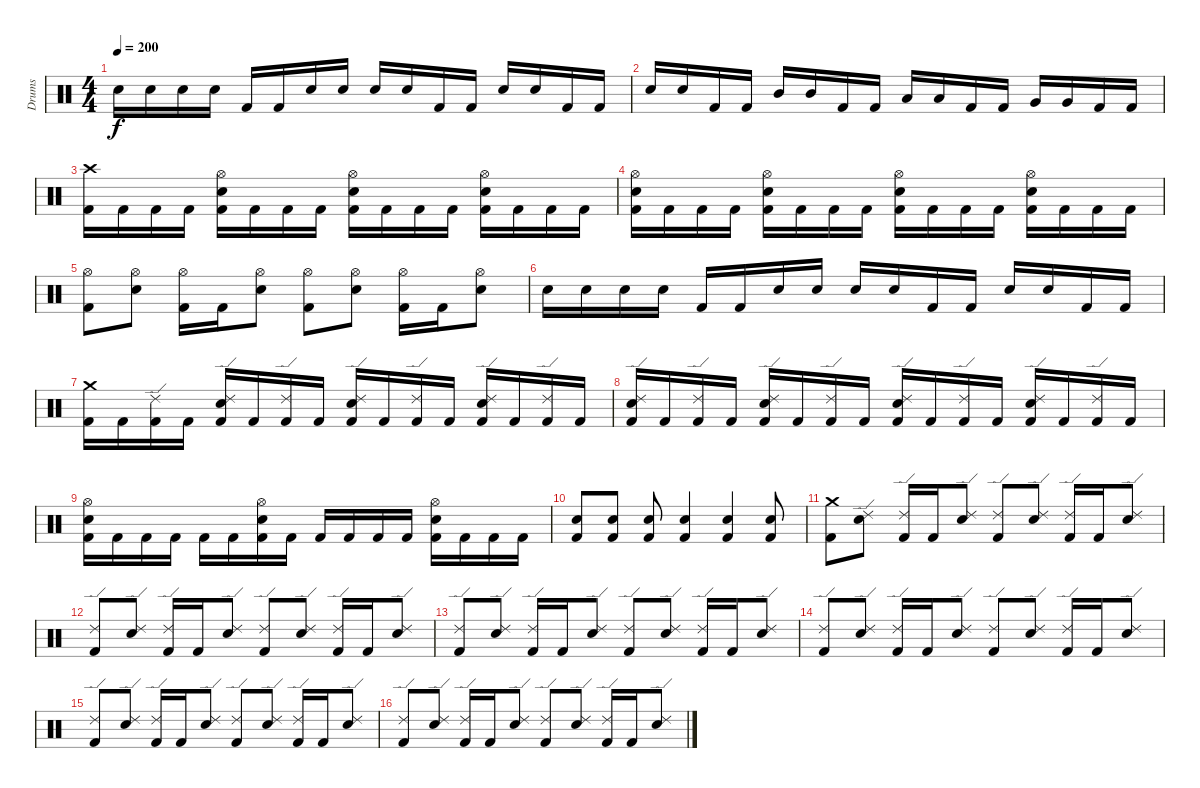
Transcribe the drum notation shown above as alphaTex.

\track ("Drums" "Drums") {instrument percussion}
\staff {score}
\articulation defaults
\ts (4 4)
\tempo 200
\clef neutral
\ks c "Snare (hit) 2".16{dy f} "Snare (hit) 2".16 "Snare (hit) 2".16 "Snare (hit) 2".16 "Kick (hit) 2".16 "Kick (hit) 2".16 "Snare (hit) 2".16 "Snare (hit) 2".16 "Snare (hit) 2".16 "Snare (hit) 2".16 "Kick (hit) 2".16 "Kick (hit) 2".16 "Snare (hit) 2".16 "Snare (hit) 2".16 "Kick (hit) 2".16 "Kick (hit) 2".16
|
"Snare (hit) 2".16 "Snare (hit) 2".16 "Kick (hit) 2".16 "Kick (hit) 2".16 "Mid Tom (hit)".16 "Mid Tom (hit)".16 "Kick (hit) 2".16 "Kick (hit) 2".16 "Low Tom (hit)".16 "Low Tom (hit)".16 "Kick (hit) 2".16 "Kick (hit) 2".16 "Very Low Tom (hit)".16 "Very Low Tom (hit)".16 "Kick (hit) 2".16 "Kick (hit) 2".16 |
\section ("" "")
("Kick (hit) 2" "Crash high (hit)").16 "Kick (hit) 2".16 "Kick (hit) 2".16 "Kick (hit) 2".16 ("Kick (hit) 2" "Snare (hit) 2" "Hi-Hat (open)").16 "Kick (hit) 2".16 "Kick (hit) 2".16 "Kick (hit) 2".16 ("Kick (hit) 2" "Snare (hit) 2" "Hi-Hat (open)").16 "Kick (hit) 2".16 "Kick (hit) 2".16 "Kick (hit) 2".16 ("Kick (hit) 2" "Snare (hit) 2" "Hi-Hat (open)").16 "Kick (hit) 2".16 "Kick (hit) 2".16 "Kick (hit) 2".16 |
("Kick (hit) 2" "Snare (hit) 2" "Hi-Hat (open)").16 "Kick (hit) 2".16 "Kick (hit) 2".16 "Kick (hit) 2".16 ("Kick (hit) 2" "Snare (hit) 2" "Hi-Hat (open)").16 "Kick (hit) 2".16 "Kick (hit) 2".16 "Kick (hit) 2".16 ("Kick (hit) 2" "Snare (hit) 2" "Hi-Hat (open)").16 "Kick (hit) 2".16 "Kick (hit) 2".16 "Kick (hit) 2".16 ("Kick (hit) 2" "Snare (hit) 2" "Hi-Hat (open)").16 "Kick (hit) 2".16 "Kick (hit) 2".16 "Kick (hit) 2".16 |
("Kick (hit) 2" "Hi-Hat (open)").8 ("Snare (hit) 2" "Hi-Hat (open)").8 ("Kick (hit) 2" "Hi-Hat (open)").16 "Kick (hit) 2".16 ("Snare (hit) 2" "Hi-Hat (open)").8 ("Kick (hit) 2" "Hi-Hat (open)").8 ("Snare (hit) 2" "Hi-Hat (open)").8 ("Kick (hit) 2" "Hi-Hat (open)").16 "Kick (hit) 2".16 ("Snare (hit) 2" "Hi-Hat (open)").8 |
"Snare (hit) 2".16 "Snare (hit) 2".16 "Snare (hit) 2".16 "Snare (hit) 2".16 "Kick (hit) 2".16 "Kick (hit) 2".16 "Snare (hit) 2".16 "Snare (hit) 2".16 "Snare (hit) 2".16 "Snare (hit) 2".16 "Kick (hit) 2".16 "Kick (hit) 2".16 "Snare (hit) 2".16 "Snare (hit) 2".16 "Kick (hit) 2".16 "Kick (hit) 2".16 |
("Kick (hit) 2" "Crash medium (hit)").16 "Kick (hit) 2".16 ("Kick (hit) 2" "Ride (edge) 2").16 "Kick (hit) 2".16 ("Kick (hit) 2" "Snare (hit) 2" "Ride (edge) 2").16 "Kick (hit) 2".16 ("Kick (hit) 2" "Ride (edge) 2").16 "Kick (hit) 2".16 ("Kick (hit) 2" "Snare (hit) 2" "Ride (edge) 2").16 "Kick (hit) 2".16 ("Kick (hit) 2" "Ride (edge) 2").16 "Kick (hit) 2".16 ("Kick (hit) 2" "Snare (hit) 2" "Ride (edge) 2").16 "Kick (hit) 2".16 ("Kick (hit) 2" "Ride (edge) 2").16 "Kick (hit) 2".16 |
("Kick (hit) 2" "Snare (hit) 2" "Ride (edge) 2").16 "Kick (hit) 2".16 ("Kick (hit) 2" "Ride (edge) 2").16 "Kick (hit) 2".16 ("Kick (hit) 2" "Snare (hit) 2" "Ride (edge) 2").16 "Kick (hit) 2".16 ("Kick (hit) 2" "Ride (edge) 2").16 "Kick (hit) 2".16 ("Kick (hit) 2" "Snare (hit) 2" "Ride (edge) 2").16 "Kick (hit) 2".16 ("Kick (hit) 2" "Ride (edge) 2").16 "Kick (hit) 2".16 ("Kick (hit) 2" "Snare (hit) 2" "Ride (edge) 2").16 "Kick (hit) 2".16 ("Kick (hit) 2" "Ride (edge) 2").16 "Kick (hit) 2".16 |
("Kick (hit) 2" "Snare (hit) 2" "Hi-Hat (open)").16 "Kick (hit) 2".16 "Kick (hit) 2".16 "Kick (hit) 2".16 "Kick (hit) 2".16 "Kick (hit) 2".16 ("Kick (hit) 2" "Snare (hit) 2" "Hi-Hat (open)").16 "Kick (hit) 2".16 "Kick (hit) 2".16 "Kick (hit) 2".16 "Kick (hit) 2".16 "Kick (hit) 2".16 ("Kick (hit) 2" "Snare (hit) 2" "Hi-Hat (open)").16 "Kick (hit) 2".16 "Kick (hit) 2".16 "Kick (hit) 2".16 |
("Kick (hit) 2" "Snare (hit) 2").8 ("Kick (hit) 2" "Snare (hit) 2").8 ("Kick (hit) 2" "Snare (hit) 2").8 ("Kick (hit) 2" "Snare (hit) 2").4 ("Kick (hit) 2" "Snare (hit) 2").4 ("Kick (hit) 2" "Snare (hit) 2").8 |
\section ("" "")
("Kick (hit) 2" "Crash medium (hit)").8 ("Snare (hit) 2" "Ride (edge) 2").8 ("Kick (hit) 2" "Ride (edge) 2").16 "Kick (hit) 2".16 ("Snare (hit) 2" "Ride (edge) 2").8 ("Kick (hit) 2" "Ride (edge) 2").8 ("Snare (hit) 2" "Ride (edge) 2").8 ("Kick (hit) 2" "Ride (edge) 2").16 "Kick (hit) 2".16 ("Snare (hit) 2" "Ride (edge) 2").8 |
("Kick (hit) 2" "Ride (edge) 2").8 ("Snare (hit) 2" "Ride (edge) 2").8 ("Kick (hit) 2" "Ride (edge) 2").16 "Kick (hit) 2".16 ("Snare (hit) 2" "Ride (edge) 2").8 ("Kick (hit) 2" "Ride (edge) 2").8 ("Snare (hit) 2" "Ride (edge) 2").8 ("Kick (hit) 2" "Ride (edge) 2").16 "Kick (hit) 2".16 ("Snare (hit) 2" "Ride (edge) 2").8 |
("Kick (hit) 2" "Ride (edge) 2").8 ("Snare (hit) 2" "Ride (edge) 2").8 ("Kick (hit) 2" "Ride (edge) 2").16 "Kick (hit) 2".16 ("Snare (hit) 2" "Ride (edge) 2").8 ("Kick (hit) 2" "Ride (edge) 2").8 ("Snare (hit) 2" "Ride (edge) 2").8 ("Kick (hit) 2" "Ride (edge) 2").16 "Kick (hit) 2".16 ("Snare (hit) 2" "Ride (edge) 2").8 |
("Kick (hit) 2" "Ride (edge) 2").8 ("Snare (hit) 2" "Ride (edge) 2").8 ("Kick (hit) 2" "Ride (edge) 2").16 "Kick (hit) 2".16 ("Snare (hit) 2" "Ride (edge) 2").8 ("Kick (hit) 2" "Ride (edge) 2").8 ("Snare (hit) 2" "Ride (edge) 2").8 ("Kick (hit) 2" "Ride (edge) 2").16 "Kick (hit) 2".16 ("Snare (hit) 2" "Ride (edge) 2").8 |
("Kick (hit) 2" "Ride (edge) 2").8 ("Snare (hit) 2" "Ride (edge) 2").8 ("Kick (hit) 2" "Ride (edge) 2").16 "Kick (hit) 2".16 ("Snare (hit) 2" "Ride (edge) 2").8 ("Kick (hit) 2" "Ride (edge) 2").8 ("Snare (hit) 2" "Ride (edge) 2").8 ("Kick (hit) 2" "Ride (edge) 2").16 "Kick (hit) 2".16 ("Snare (hit) 2" "Ride (edge) 2").8 |
("Kick (hit) 2" "Ride (edge) 2").8 ("Snare (hit) 2" "Ride (edge) 2").8 ("Kick (hit) 2" "Ride (edge) 2").16 "Kick (hit) 2".16 ("Snare (hit) 2" "Ride (edge) 2").8 ("Kick (hit) 2" "Ride (edge) 2").8 ("Snare (hit) 2" "Ride (edge) 2").8 ("Kick (hit) 2" "Ride (edge) 2").16 "Kick (hit) 2".16 ("Snare (hit) 2" "Ride (edge) 2").8
